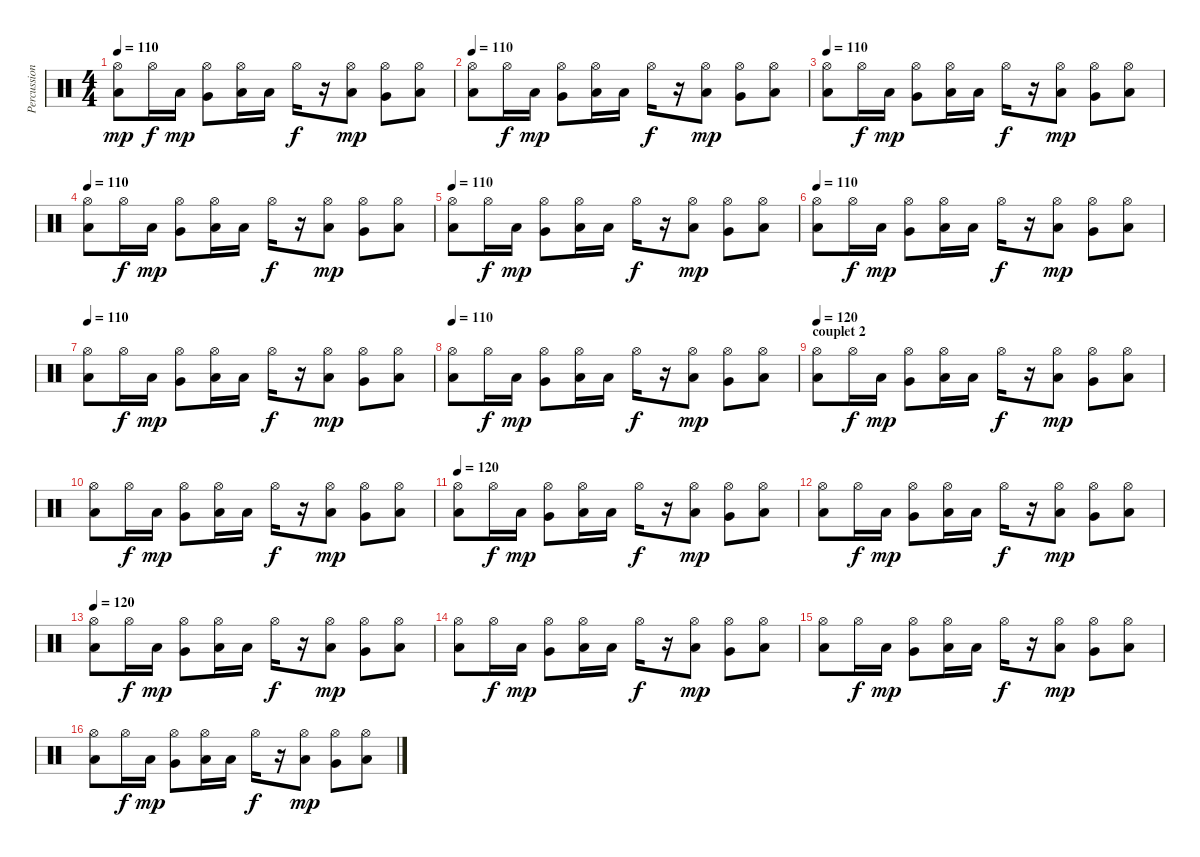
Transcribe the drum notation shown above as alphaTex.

\track ("Percussions" "Percussion") {instrument percussion}
\staff {score}
\articulation defaults
\ts (4 4)
\tempo 110
\clef neutral
\ks c
("Low Floor Tom (hit)" "Hi-Hat (open)").8{dy mp} "Hi-Hat (open)".16{dy f} "Low Floor Tom (hit)".16{dy mp} ("Very Low Tom (hit)" "Hi-Hat (open)").8 ("Low Floor Tom (hit)" "Hi-Hat (open)").16 "Low Floor Tom (hit)".16 "Hi-Hat (open)".16{dy f} r.16 ("Low Floor Tom (hit)" "Hi-Hat (open)").8{dy mp} ("Very Low Tom (hit)" "Hi-Hat (open)").8 ("Low Floor Tom (hit)" "Hi-Hat (open)").8 |
\tempo 110
("Low Floor Tom (hit)" "Hi-Hat (open)").8 "Hi-Hat (open)".16{dy f} "Low Floor Tom (hit)".16{dy mp} ("Very Low Tom (hit)" "Hi-Hat (open)").8 ("Low Floor Tom (hit)" "Hi-Hat (open)").16 "Low Floor Tom (hit)".16 "Hi-Hat (open)".16{dy f} r.16 ("Low Floor Tom (hit)" "Hi-Hat (open)").8{dy mp} ("Very Low Tom (hit)" "Hi-Hat (open)").8 ("Low Floor Tom (hit)" "Hi-Hat (open)").8 |
\tempo 110
("Low Floor Tom (hit)" "Hi-Hat (open)").8 "Hi-Hat (open)".16{dy f} "Low Floor Tom (hit)".16{dy mp} ("Very Low Tom (hit)" "Hi-Hat (open)").8 ("Low Floor Tom (hit)" "Hi-Hat (open)").16 "Low Floor Tom (hit)".16 "Hi-Hat (open)".16{dy f} r.16 ("Low Floor Tom (hit)" "Hi-Hat (open)").8{dy mp} ("Very Low Tom (hit)" "Hi-Hat (open)").8 ("Low Floor Tom (hit)" "Hi-Hat (open)").8 |
\tempo 110
("Low Floor Tom (hit)" "Hi-Hat (open)").8 "Hi-Hat (open)".16{dy f} "Low Floor Tom (hit)".16{dy mp} ("Very Low Tom (hit)" "Hi-Hat (open)").8 ("Low Floor Tom (hit)" "Hi-Hat (open)").16 "Low Floor Tom (hit)".16 "Hi-Hat (open)".16{dy f} r.16 ("Low Floor Tom (hit)" "Hi-Hat (open)").8{dy mp} ("Very Low Tom (hit)" "Hi-Hat (open)").8 ("Low Floor Tom (hit)" "Hi-Hat (open)").8 |
\tempo 110
("Low Floor Tom (hit)" "Hi-Hat (open)").8 "Hi-Hat (open)".16{dy f} "Low Floor Tom (hit)".16{dy mp} ("Very Low Tom (hit)" "Hi-Hat (open)").8 ("Low Floor Tom (hit)" "Hi-Hat (open)").16 "Low Floor Tom (hit)".16 "Hi-Hat (open)".16{dy f} r.16 ("Low Floor Tom (hit)" "Hi-Hat (open)").8{dy mp} ("Very Low Tom (hit)" "Hi-Hat (open)").8 ("Low Floor Tom (hit)" "Hi-Hat (open)").8 |
\tempo 110
("Low Floor Tom (hit)" "Hi-Hat (open)").8 "Hi-Hat (open)".16{dy f} "Low Floor Tom (hit)".16{dy mp} ("Very Low Tom (hit)" "Hi-Hat (open)").8 ("Low Floor Tom (hit)" "Hi-Hat (open)").16 "Low Floor Tom (hit)".16 "Hi-Hat (open)".16{dy f} r.16 ("Low Floor Tom (hit)" "Hi-Hat (open)").8{dy mp} ("Very Low Tom (hit)" "Hi-Hat (open)").8 ("Low Floor Tom (hit)" "Hi-Hat (open)").8 |
\tempo 110
("Low Floor Tom (hit)" "Hi-Hat (open)").8 "Hi-Hat (open)".16{dy f} "Low Floor Tom (hit)".16{dy mp} ("Very Low Tom (hit)" "Hi-Hat (open)").8 ("Low Floor Tom (hit)" "Hi-Hat (open)").16 "Low Floor Tom (hit)".16 "Hi-Hat (open)".16{dy f} r.16 ("Low Floor Tom (hit)" "Hi-Hat (open)").8{dy mp} ("Very Low Tom (hit)" "Hi-Hat (open)").8 ("Low Floor Tom (hit)" "Hi-Hat (open)").8 |
\tempo 110
("Low Floor Tom (hit)" "Hi-Hat (open)").8 "Hi-Hat (open)".16{dy f} "Low Floor Tom (hit)".16{dy mp} ("Very Low Tom (hit)" "Hi-Hat (open)").8 ("Low Floor Tom (hit)" "Hi-Hat (open)").16 "Low Floor Tom (hit)".16 "Hi-Hat (open)".16{dy f} r.16 ("Low Floor Tom (hit)" "Hi-Hat (open)").8{dy mp} ("Very Low Tom (hit)" "Hi-Hat (open)").8 ("Low Floor Tom (hit)" "Hi-Hat (open)").8 |
\section ("" "couplet 2")
\tempo 120
("Low Floor Tom (hit)" "Hi-Hat (open)").8 "Hi-Hat (open)".16{dy f} "Low Floor Tom (hit)".16{dy mp} ("Very Low Tom (hit)" "Hi-Hat (open)").8 ("Low Floor Tom (hit)" "Hi-Hat (open)").16 "Low Floor Tom (hit)".16 "Hi-Hat (open)".16{dy f} r.16 ("Low Floor Tom (hit)" "Hi-Hat (open)").8{dy mp} ("Very Low Tom (hit)" "Hi-Hat (open)").8 ("Low Floor Tom (hit)" "Hi-Hat (open)").8 |
("Low Floor Tom (hit)" "Hi-Hat (open)").8 "Hi-Hat (open)".16{dy f} "Low Floor Tom (hit)".16{dy mp} ("Very Low Tom (hit)" "Hi-Hat (open)").8 ("Low Floor Tom (hit)" "Hi-Hat (open)").16 "Low Floor Tom (hit)".16 "Hi-Hat (open)".16{dy f} r.16 ("Low Floor Tom (hit)" "Hi-Hat (open)").8{dy mp} ("Very Low Tom (hit)" "Hi-Hat (open)").8 ("Low Floor Tom (hit)" "Hi-Hat (open)").8 |
\tempo 120
("Low Floor Tom (hit)" "Hi-Hat (open)").8 "Hi-Hat (open)".16{dy f} "Low Floor Tom (hit)".16{dy mp} ("Very Low Tom (hit)" "Hi-Hat (open)").8 ("Low Floor Tom (hit)" "Hi-Hat (open)").16 "Low Floor Tom (hit)".16 "Hi-Hat (open)".16{dy f} r.16 ("Low Floor Tom (hit)" "Hi-Hat (open)").8{dy mp} ("Very Low Tom (hit)" "Hi-Hat (open)").8 ("Low Floor Tom (hit)" "Hi-Hat (open)").8 |
("Low Floor Tom (hit)" "Hi-Hat (open)").8 "Hi-Hat (open)".16{dy f} "Low Floor Tom (hit)".16{dy mp} ("Very Low Tom (hit)" "Hi-Hat (open)").8 ("Low Floor Tom (hit)" "Hi-Hat (open)").16 "Low Floor Tom (hit)".16 "Hi-Hat (open)".16{dy f} r.16 ("Low Floor Tom (hit)" "Hi-Hat (open)").8{dy mp} ("Very Low Tom (hit)" "Hi-Hat (open)").8 ("Low Floor Tom (hit)" "Hi-Hat (open)").8 |
\tempo 120
("Low Floor Tom (hit)" "Hi-Hat (open)").8 "Hi-Hat (open)".16{dy f} "Low Floor Tom (hit)".16{dy mp} ("Very Low Tom (hit)" "Hi-Hat (open)").8 ("Low Floor Tom (hit)" "Hi-Hat (open)").16 "Low Floor Tom (hit)".16 "Hi-Hat (open)".16{dy f} r.16 ("Low Floor Tom (hit)" "Hi-Hat (open)").8{dy mp} ("Very Low Tom (hit)" "Hi-Hat (open)").8 ("Low Floor Tom (hit)" "Hi-Hat (open)").8 |
("Low Floor Tom (hit)" "Hi-Hat (open)").8 "Hi-Hat (open)".16{dy f} "Low Floor Tom (hit)".16{dy mp} ("Very Low Tom (hit)" "Hi-Hat (open)").8 ("Low Floor Tom (hit)" "Hi-Hat (open)").16 "Low Floor Tom (hit)".16 "Hi-Hat (open)".16{dy f} r.16 ("Low Floor Tom (hit)" "Hi-Hat (open)").8{dy mp} ("Very Low Tom (hit)" "Hi-Hat (open)").8 ("Low Floor Tom (hit)" "Hi-Hat (open)").8 |
("Low Floor Tom (hit)" "Hi-Hat (open)").8 "Hi-Hat (open)".16{dy f} "Low Floor Tom (hit)".16{dy mp} ("Very Low Tom (hit)" "Hi-Hat (open)").8 ("Low Floor Tom (hit)" "Hi-Hat (open)").16 "Low Floor Tom (hit)".16 "Hi-Hat (open)".16{dy f} r.16 ("Low Floor Tom (hit)" "Hi-Hat (open)").8{dy mp} ("Very Low Tom (hit)" "Hi-Hat (open)").8 ("Low Floor Tom (hit)" "Hi-Hat (open)").8 |
("Low Floor Tom (hit)" "Hi-Hat (open)").8 "Hi-Hat (open)".16{dy f} "Low Floor Tom (hit)".16{dy mp} ("Very Low Tom (hit)" "Hi-Hat (open)").8 ("Low Floor Tom (hit)" "Hi-Hat (open)").16 "Low Floor Tom (hit)".16 "Hi-Hat (open)".16{dy f} r.16 ("Low Floor Tom (hit)" "Hi-Hat (open)").8{dy mp} ("Very Low Tom (hit)" "Hi-Hat (open)").8 ("Low Floor Tom (hit)" "Hi-Hat (open)").8
